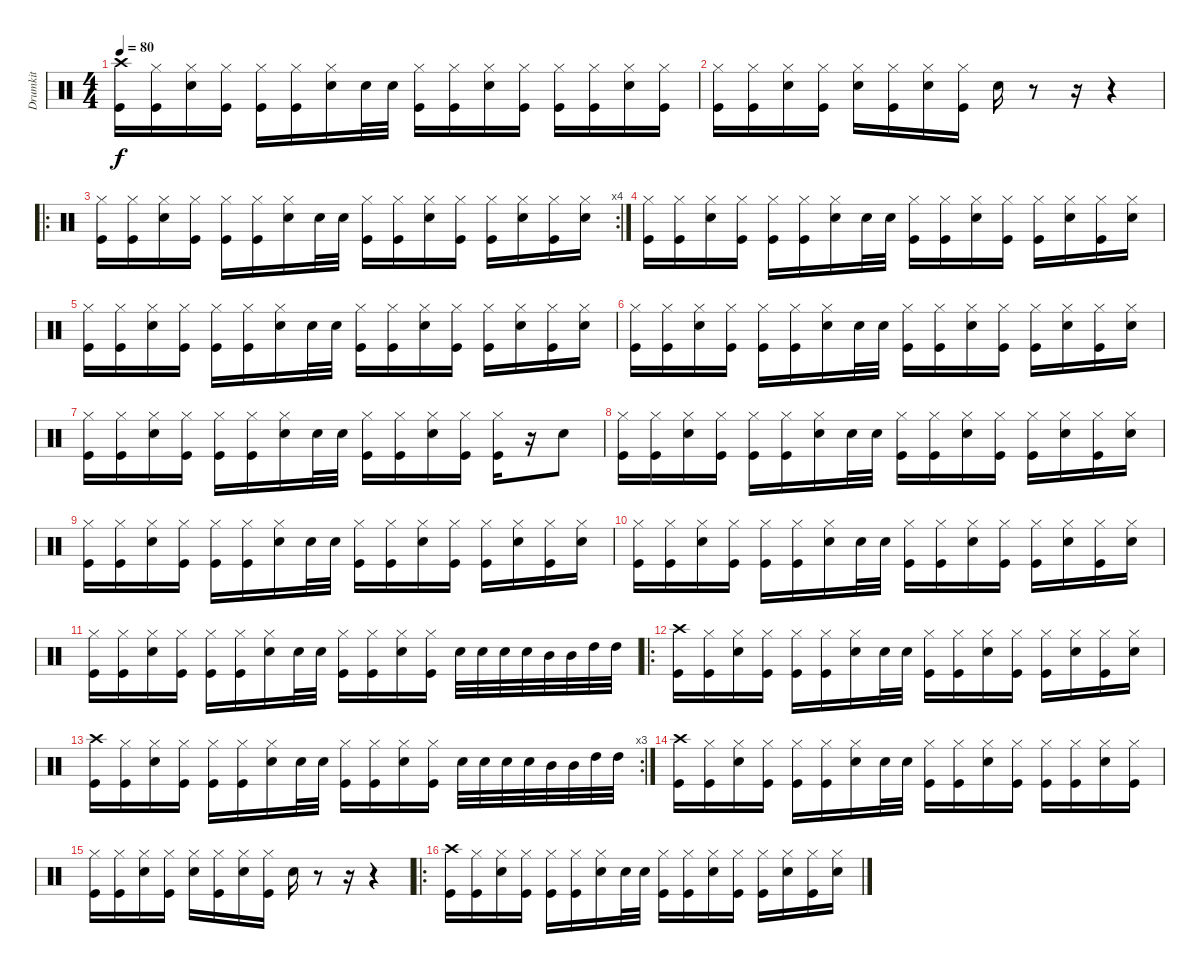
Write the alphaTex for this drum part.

\track ("Drumkit" "Drumkit") {instrument percussion}
\staff {score}
\articulation defaults
\ts (4 4)
\tempo 80
\clef neutral
\ks c
("Crash high (hit)" "Kick (hit)").16{dy f} ("Hi-Hat (closed)" "Kick (hit)").16 ("Hi-Hat (closed)" "Snare (hit) 2").16 ("Hi-Hat (closed)" "Kick (hit)").16 ("Hi-Hat (closed)" "Kick (hit)").16 ("Hi-Hat (closed)" "Kick (hit)").16 ("Hi-Hat (closed)" "Snare (hit) 2").16 "Snare (hit) 2".32 "Snare (hit) 2".32 ("Hi-Hat (closed)" "Kick (hit)").16 ("Hi-Hat (closed)" "Kick (hit)").16 ("Hi-Hat (closed)" "Snare (hit) 2").16 ("Hi-Hat (closed)" "Kick (hit)").16 ("Hi-Hat (closed)" "Kick (hit)").16 ("Hi-Hat (closed)" "Kick (hit)").16 ("Hi-Hat (closed)" "Snare (hit) 2").16 ("Hi-Hat (closed)" "Kick (hit)").16 |
("Hi-Hat (closed)" "Kick (hit)").16 ("Hi-Hat (closed)" "Kick (hit)").16 ("Hi-Hat (closed)" "Snare (hit) 2").16 ("Hi-Hat (closed)" "Kick (hit)").16 ("Hi-Hat (closed)" "Snare (hit) 2").16 ("Hi-Hat (closed)" "Kick (hit)").16 ("Hi-Hat (closed)" "Snare (hit) 2").16 ("Hi-Hat (closed)" "Kick (hit)").16 "Snare (hit) 2".16 r.8 r.16 r.4 |
\ro
\rc 4
("Hi-Hat (closed)" "Kick (hit)").16 ("Hi-Hat (closed)" "Kick (hit)").16 ("Hi-Hat (closed)" "Snare (hit) 2").16 ("Hi-Hat (closed)" "Kick (hit)").16 ("Hi-Hat (closed)" "Kick (hit)").16 ("Hi-Hat (closed)" "Kick (hit)").16 ("Hi-Hat (closed)" "Snare (hit) 2").16 "Snare (hit) 2".32 "Snare (hit) 2".32 ("Hi-Hat (closed)" "Kick (hit)").16 ("Hi-Hat (closed)" "Kick (hit)").16 ("Hi-Hat (closed)" "Snare (hit) 2").16 ("Hi-Hat (closed)" "Kick (hit)").16 ("Hi-Hat (closed)" "Kick (hit)").16 ("Hi-Hat (closed)" "Snare (hit) 2").16 ("Hi-Hat (closed)" "Kick (hit)").16 ("Hi-Hat (closed)" "Snare (hit) 2").16 |
("Hi-Hat (closed)" "Kick (hit)").16 ("Hi-Hat (closed)" "Kick (hit)").16 ("Hi-Hat (closed)" "Snare (hit) 2").16 ("Hi-Hat (closed)" "Kick (hit)").16 ("Hi-Hat (closed)" "Kick (hit)").16 ("Hi-Hat (closed)" "Kick (hit)").16 ("Hi-Hat (closed)" "Snare (hit) 2").16 "Snare (hit) 2".32 "Snare (hit) 2".32 ("Hi-Hat (closed)" "Kick (hit)").16 ("Hi-Hat (closed)" "Kick (hit)").16 ("Hi-Hat (closed)" "Snare (hit) 2").16 ("Hi-Hat (closed)" "Kick (hit)").16 ("Hi-Hat (closed)" "Kick (hit)").16 ("Hi-Hat (closed)" "Snare (hit) 2").16 ("Hi-Hat (closed)" "Kick (hit)").16 ("Hi-Hat (closed)" "Snare (hit) 2").16 |
("Hi-Hat (closed)" "Kick (hit)").16 ("Hi-Hat (closed)" "Kick (hit)").16 ("Hi-Hat (closed)" "Snare (hit) 2").16 ("Hi-Hat (closed)" "Kick (hit)").16 ("Hi-Hat (closed)" "Kick (hit)").16 ("Hi-Hat (closed)" "Kick (hit)").16 ("Hi-Hat (closed)" "Snare (hit) 2").16 "Snare (hit) 2".32 "Snare (hit) 2".32 ("Hi-Hat (closed)" "Kick (hit)").16 ("Hi-Hat (closed)" "Kick (hit)").16 ("Hi-Hat (closed)" "Snare (hit) 2").16 ("Hi-Hat (closed)" "Kick (hit)").16 ("Hi-Hat (closed)" "Kick (hit)").16 ("Hi-Hat (closed)" "Snare (hit) 2").16 ("Hi-Hat (closed)" "Kick (hit)").16 ("Hi-Hat (closed)" "Snare (hit) 2").16 |
("Hi-Hat (closed)" "Kick (hit)").16 ("Hi-Hat (closed)" "Kick (hit)").16 ("Hi-Hat (closed)" "Snare (hit) 2").16 ("Hi-Hat (closed)" "Kick (hit)").16 ("Hi-Hat (closed)" "Kick (hit)").16 ("Hi-Hat (closed)" "Kick (hit)").16 ("Hi-Hat (closed)" "Snare (hit) 2").16 "Snare (hit) 2".32 "Snare (hit) 2".32 ("Hi-Hat (closed)" "Kick (hit)").16 ("Hi-Hat (closed)" "Kick (hit)").16 ("Hi-Hat (closed)" "Snare (hit) 2").16 ("Hi-Hat (closed)" "Kick (hit)").16 ("Hi-Hat (closed)" "Kick (hit)").16 ("Hi-Hat (closed)" "Snare (hit) 2").16 ("Hi-Hat (closed)" "Kick (hit)").16 ("Hi-Hat (closed)" "Snare (hit) 2").16 |
("Hi-Hat (closed)" "Kick (hit)").16 ("Hi-Hat (closed)" "Kick (hit)").16 ("Hi-Hat (closed)" "Snare (hit) 2").16 ("Hi-Hat (closed)" "Kick (hit)").16 ("Hi-Hat (closed)" "Kick (hit)").16 ("Hi-Hat (closed)" "Kick (hit)").16 ("Hi-Hat (closed)" "Snare (hit) 2").16 "Snare (hit) 2".32 "Snare (hit) 2".32 ("Hi-Hat (closed)" "Kick (hit)").16 ("Hi-Hat (closed)" "Kick (hit)").16 ("Hi-Hat (closed)" "Snare (hit) 2").16 ("Hi-Hat (closed)" "Kick (hit)").16 ("Hi-Hat (closed)" "Kick (hit)").16 r.16 "Snare (hit) 2".8 |
("Hi-Hat (closed)" "Kick (hit)").16 ("Hi-Hat (closed)" "Kick (hit)").16 ("Hi-Hat (closed)" "Snare (hit) 2").16 ("Hi-Hat (closed)" "Kick (hit)").16 ("Hi-Hat (closed)" "Kick (hit)").16 ("Hi-Hat (closed)" "Kick (hit)").16 ("Hi-Hat (closed)" "Snare (hit) 2").16 "Snare (hit) 2".32 "Snare (hit) 2".32 ("Hi-Hat (closed)" "Kick (hit)").16 ("Hi-Hat (closed)" "Kick (hit)").16 ("Hi-Hat (closed)" "Snare (hit) 2").16 ("Hi-Hat (closed)" "Kick (hit)").16 ("Hi-Hat (closed)" "Kick (hit)").16 ("Hi-Hat (closed)" "Snare (hit) 2").16 ("Hi-Hat (closed)" "Kick (hit)").16 ("Hi-Hat (closed)" "Snare (hit) 2").16 |
("Hi-Hat (closed)" "Kick (hit)").16 ("Hi-Hat (closed)" "Kick (hit)").16 ("Hi-Hat (closed)" "Snare (hit) 2").16 ("Hi-Hat (closed)" "Kick (hit)").16 ("Hi-Hat (closed)" "Kick (hit)").16 ("Hi-Hat (closed)" "Kick (hit)").16 ("Hi-Hat (closed)" "Snare (hit) 2").16 "Snare (hit) 2".32 "Snare (hit) 2".32 ("Hi-Hat (closed)" "Kick (hit)").16 ("Hi-Hat (closed)" "Kick (hit)").16 ("Hi-Hat (closed)" "Snare (hit) 2").16 ("Hi-Hat (closed)" "Kick (hit)").16 ("Hi-Hat (closed)" "Kick (hit)").16 ("Hi-Hat (closed)" "Snare (hit) 2").16 ("Hi-Hat (closed)" "Kick (hit)").16 ("Hi-Hat (closed)" "Snare (hit) 2").16 |
("Hi-Hat (closed)" "Kick (hit)").16 ("Hi-Hat (closed)" "Kick (hit)").16 ("Hi-Hat (closed)" "Snare (hit) 2").16 ("Hi-Hat (closed)" "Kick (hit)").16 ("Hi-Hat (closed)" "Kick (hit)").16 ("Hi-Hat (closed)" "Kick (hit)").16 ("Hi-Hat (closed)" "Snare (hit) 2").16 "Snare (hit) 2".32 "Snare (hit) 2".32 ("Hi-Hat (closed)" "Kick (hit)").16 ("Hi-Hat (closed)" "Kick (hit)").16 ("Hi-Hat (closed)" "Snare (hit) 2").16 ("Hi-Hat (closed)" "Kick (hit)").16 ("Hi-Hat (closed)" "Kick (hit)").16 ("Hi-Hat (closed)" "Snare (hit) 2").16 ("Hi-Hat (closed)" "Kick (hit)").16 ("Hi-Hat (closed)" "Snare (hit) 2").16 |
("Hi-Hat (closed)" "Kick (hit)").16 ("Hi-Hat (closed)" "Kick (hit)").16 ("Hi-Hat (closed)" "Snare (hit) 2").16 ("Hi-Hat (closed)" "Kick (hit)").16 ("Hi-Hat (closed)" "Kick (hit)").16 ("Hi-Hat (closed)" "Kick (hit)").16 ("Hi-Hat (closed)" "Snare (hit) 2").16 "Snare (hit) 2".32 "Snare (hit) 2".32 ("Hi-Hat (closed)" "Kick (hit)").16 ("Hi-Hat (closed)" "Kick (hit)").16 ("Hi-Hat (closed)" "Snare (hit) 2").16 ("Hi-Hat (closed)" "Kick (hit)").16 "Snare (hit) 2".32 "Snare (hit) 2".32 "Snare (hit) 2".32 "Snare (hit) 2".32 "Mid Tom (hit)".32 "Mid Tom (hit)".32 "High Tom (hit)".32 "High Tom (hit)".32 |
\ro
("Crash high (hit)" "Kick (hit)").16 ("Hi-Hat (closed)" "Kick (hit)").16 ("Hi-Hat (closed)" "Snare (hit) 2").16 ("Hi-Hat (closed)" "Kick (hit)").16 ("Hi-Hat (closed)" "Kick (hit)").16 ("Hi-Hat (closed)" "Kick (hit)").16 ("Hi-Hat (closed)" "Snare (hit) 2").16 "Snare (hit) 2".32 "Snare (hit) 2".32 ("Hi-Hat (closed)" "Kick (hit)").16 ("Hi-Hat (closed)" "Kick (hit)").16 ("Hi-Hat (closed)" "Snare (hit) 2").16 ("Hi-Hat (closed)" "Kick (hit)").16 ("Hi-Hat (closed)" "Kick (hit)").16 ("Hi-Hat (closed)" "Snare (hit) 2").16 ("Hi-Hat (closed)" "Kick (hit)").16 ("Hi-Hat (closed)" "Snare (hit) 2").16 |
\rc 3
("Crash high (hit)" "Kick (hit)").16 ("Hi-Hat (closed)" "Kick (hit)").16 ("Hi-Hat (closed)" "Snare (hit) 2").16 ("Hi-Hat (closed)" "Kick (hit)").16 ("Hi-Hat (closed)" "Kick (hit)").16 ("Hi-Hat (closed)" "Kick (hit)").16 ("Hi-Hat (closed)" "Snare (hit) 2").16 "Snare (hit) 2".32 "Snare (hit) 2".32 ("Hi-Hat (closed)" "Kick (hit)").16 ("Hi-Hat (closed)" "Kick (hit)").16 ("Hi-Hat (closed)" "Snare (hit) 2").16 ("Hi-Hat (closed)" "Kick (hit)").16 "Snare (hit) 2".32 "Snare (hit) 2".32 "Snare (hit) 2".32 "Snare (hit) 2".32 "Mid Tom (hit)".32 "Mid Tom (hit)".32 "High Tom (hit)".32 "High Tom (hit)".32 |
("Crash high (hit)" "Kick (hit)").16 ("Hi-Hat (closed)" "Kick (hit)").16 ("Hi-Hat (closed)" "Snare (hit) 2").16 ("Hi-Hat (closed)" "Kick (hit)").16 ("Hi-Hat (closed)" "Kick (hit)").16 ("Hi-Hat (closed)" "Kick (hit)").16 ("Hi-Hat (closed)" "Snare (hit) 2").16 "Snare (hit) 2".32 "Snare (hit) 2".32 ("Hi-Hat (closed)" "Kick (hit)").16 ("Hi-Hat (closed)" "Kick (hit)").16 ("Hi-Hat (closed)" "Snare (hit) 2").16 ("Hi-Hat (closed)" "Kick (hit)").16 ("Hi-Hat (closed)" "Kick (hit)").16 ("Hi-Hat (closed)" "Kick (hit)").16 ("Hi-Hat (closed)" "Snare (hit) 2").16 ("Hi-Hat (closed)" "Kick (hit)").16 |
("Hi-Hat (closed)" "Kick (hit)").16 ("Hi-Hat (closed)" "Kick (hit)").16 ("Hi-Hat (closed)" "Snare (hit) 2").16 ("Hi-Hat (closed)" "Kick (hit)").16 ("Hi-Hat (closed)" "Snare (hit) 2").16 ("Hi-Hat (closed)" "Kick (hit)").16 ("Hi-Hat (closed)" "Snare (hit) 2").16 ("Hi-Hat (closed)" "Kick (hit)").16 "Snare (hit) 2".16 r.8 r.16 r.4 |
\ro
("Crash high (hit)" "Kick (hit)").16 ("Hi-Hat (closed)" "Kick (hit)").16 ("Hi-Hat (closed)" "Snare (hit) 2").16 ("Hi-Hat (closed)" "Kick (hit)").16 ("Hi-Hat (closed)" "Kick (hit)").16 ("Hi-Hat (closed)" "Kick (hit)").16 ("Hi-Hat (closed)" "Snare (hit) 2").16 "Snare (hit) 2".32 "Snare (hit) 2".32 ("Hi-Hat (closed)" "Kick (hit)").16 ("Hi-Hat (closed)" "Kick (hit)").16 ("Hi-Hat (closed)" "Snare (hit) 2").16 ("Hi-Hat (closed)" "Kick (hit)").16 ("Hi-Hat (closed)" "Kick (hit)").16 ("Hi-Hat (closed)" "Snare (hit) 2").16 ("Hi-Hat (closed)" "Kick (hit)").16 ("Hi-Hat (closed)" "Snare (hit) 2").16
